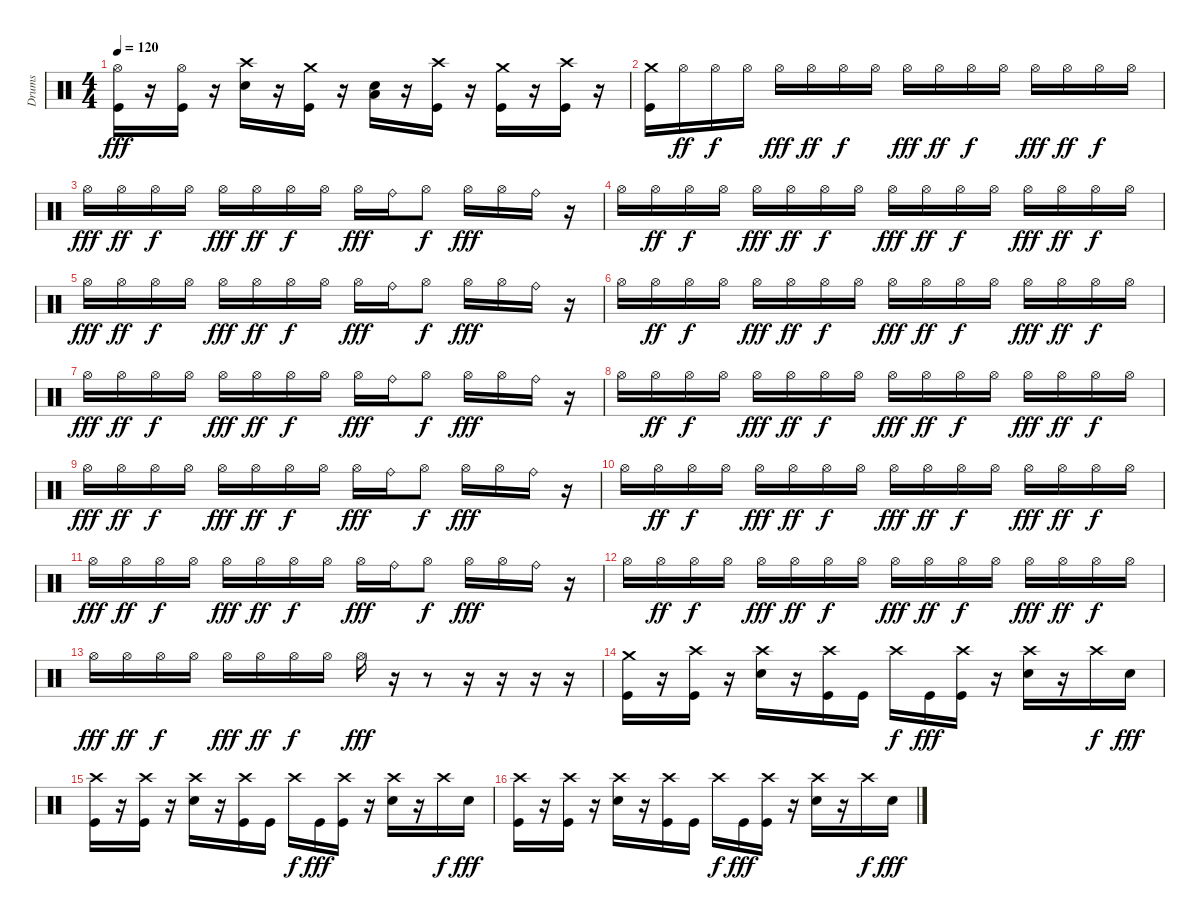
\track ("Drums" "Drums") {instrument percussion}
\staff {score}
\articulation defaults
\ts (4 4)
\tempo 120
\clef neutral
\ks c
("Hi-Hat (open)" "Kick (hit)").16{dy fff} r.16 ("Hi-Hat (open)" "Kick (hit)").16 r.16 ("Crash high (hit)" "Electric Snare (hit)").16 r.16 ("Crash medium (hit)" "Kick (hit)").16 r.16 ("Electric Snare (hit)" "Low Floor Tom (hit)").16 r.16 ("Kick (hit)" "Crash high (hit)").16 r.16 ("Crash medium (hit)" "Kick (hit)").16 r.16 ("Kick (hit)" "Crash high (hit)").16 r.16 |
("Crash medium (hit)" "Kick (hit)").16 "Hi-Hat (open)".16{dy ff} "Hi-Hat (open)".16{dy f} "Hi-Hat (open)".16 "Hi-Hat (open)".16{dy fff} "Hi-Hat (open)".16{dy ff} "Hi-Hat (open)".16{dy f} "Hi-Hat (open)".16 "Hi-Hat (open)".16{dy fff} "Hi-Hat (open)".16{dy ff} "Hi-Hat (open)".16{dy f} "Hi-Hat (open)".16 "Hi-Hat (open)".16{dy fff} "Hi-Hat (open)".16{dy ff} "Hi-Hat (open)".16{dy f} "Hi-Hat (open)".16 |
"Hi-Hat (open)".16{dy fff} "Hi-Hat (open)".16{dy ff} "Hi-Hat (open)".16{dy f} "Hi-Hat (open)".16 "Hi-Hat (open)".16{dy fff} "Hi-Hat (open)".16{dy ff} "Hi-Hat (open)".16{dy f} "Hi-Hat (open)".16 "Hi-Hat (open)".16{dy fff} "Ride (bell)".16 "Hi-Hat (open)".8{dy f} "Hi-Hat (open)".16{dy fff} "Hi-Hat (open)".16 "Ride (bell)".16 r.16 |
"Hi-Hat (open)".16 "Hi-Hat (open)".16{dy ff} "Hi-Hat (open)".16{dy f} "Hi-Hat (open)".16 "Hi-Hat (open)".16{dy fff} "Hi-Hat (open)".16{dy ff} "Hi-Hat (open)".16{dy f} "Hi-Hat (open)".16 "Hi-Hat (open)".16{dy fff} "Hi-Hat (open)".16{dy ff} "Hi-Hat (open)".16{dy f} "Hi-Hat (open)".16 "Hi-Hat (open)".16{dy fff} "Hi-Hat (open)".16{dy ff} "Hi-Hat (open)".16{dy f} "Hi-Hat (open)".16 |
"Hi-Hat (open)".16{dy fff} "Hi-Hat (open)".16{dy ff} "Hi-Hat (open)".16{dy f} "Hi-Hat (open)".16 "Hi-Hat (open)".16{dy fff} "Hi-Hat (open)".16{dy ff} "Hi-Hat (open)".16{dy f} "Hi-Hat (open)".16 "Hi-Hat (open)".16{dy fff} "Ride (bell)".16 "Hi-Hat (open)".8{dy f} "Hi-Hat (open)".16{dy fff} "Hi-Hat (open)".16 "Ride (bell)".16 r.16 |
"Hi-Hat (open)".16 "Hi-Hat (open)".16{dy ff} "Hi-Hat (open)".16{dy f} "Hi-Hat (open)".16 "Hi-Hat (open)".16{dy fff} "Hi-Hat (open)".16{dy ff} "Hi-Hat (open)".16{dy f} "Hi-Hat (open)".16 "Hi-Hat (open)".16{dy fff} "Hi-Hat (open)".16{dy ff} "Hi-Hat (open)".16{dy f} "Hi-Hat (open)".16 "Hi-Hat (open)".16{dy fff} "Hi-Hat (open)".16{dy ff} "Hi-Hat (open)".16{dy f} "Hi-Hat (open)".16 |
"Hi-Hat (open)".16{dy fff} "Hi-Hat (open)".16{dy ff} "Hi-Hat (open)".16{dy f} "Hi-Hat (open)".16 "Hi-Hat (open)".16{dy fff} "Hi-Hat (open)".16{dy ff} "Hi-Hat (open)".16{dy f} "Hi-Hat (open)".16 "Hi-Hat (open)".16{dy fff} "Ride (bell)".16 "Hi-Hat (open)".8{dy f} "Hi-Hat (open)".16{dy fff} "Hi-Hat (open)".16 "Ride (bell)".16 r.16 |
"Hi-Hat (open)".16 "Hi-Hat (open)".16{dy ff} "Hi-Hat (open)".16{dy f} "Hi-Hat (open)".16 "Hi-Hat (open)".16{dy fff} "Hi-Hat (open)".16{dy ff} "Hi-Hat (open)".16{dy f} "Hi-Hat (open)".16 "Hi-Hat (open)".16{dy fff} "Hi-Hat (open)".16{dy ff} "Hi-Hat (open)".16{dy f} "Hi-Hat (open)".16 "Hi-Hat (open)".16{dy fff} "Hi-Hat (open)".16{dy ff} "Hi-Hat (open)".16{dy f} "Hi-Hat (open)".16 |
"Hi-Hat (open)".16{dy fff} "Hi-Hat (open)".16{dy ff} "Hi-Hat (open)".16{dy f} "Hi-Hat (open)".16 "Hi-Hat (open)".16{dy fff} "Hi-Hat (open)".16{dy ff} "Hi-Hat (open)".16{dy f} "Hi-Hat (open)".16 "Hi-Hat (open)".16{dy fff} "Ride (bell)".16 "Hi-Hat (open)".8{dy f} "Hi-Hat (open)".16{dy fff} "Hi-Hat (open)".16 "Ride (bell)".16 r.16 |
"Hi-Hat (open)".16 "Hi-Hat (open)".16{dy ff} "Hi-Hat (open)".16{dy f} "Hi-Hat (open)".16 "Hi-Hat (open)".16{dy fff} "Hi-Hat (open)".16{dy ff} "Hi-Hat (open)".16{dy f} "Hi-Hat (open)".16 "Hi-Hat (open)".16{dy fff} "Hi-Hat (open)".16{dy ff} "Hi-Hat (open)".16{dy f} "Hi-Hat (open)".16 "Hi-Hat (open)".16{dy fff} "Hi-Hat (open)".16{dy ff} "Hi-Hat (open)".16{dy f} "Hi-Hat (open)".16 |
"Hi-Hat (open)".16{dy fff} "Hi-Hat (open)".16{dy ff} "Hi-Hat (open)".16{dy f} "Hi-Hat (open)".16 "Hi-Hat (open)".16{dy fff} "Hi-Hat (open)".16{dy ff} "Hi-Hat (open)".16{dy f} "Hi-Hat (open)".16 "Hi-Hat (open)".16{dy fff} "Ride (bell)".16 "Hi-Hat (open)".8{dy f} "Hi-Hat (open)".16{dy fff} "Hi-Hat (open)".16 "Ride (bell)".16 r.16 |
"Hi-Hat (open)".16 "Hi-Hat (open)".16{dy ff} "Hi-Hat (open)".16{dy f} "Hi-Hat (open)".16 "Hi-Hat (open)".16{dy fff} "Hi-Hat (open)".16{dy ff} "Hi-Hat (open)".16{dy f} "Hi-Hat (open)".16 "Hi-Hat (open)".16{dy fff} "Hi-Hat (open)".16{dy ff} "Hi-Hat (open)".16{dy f} "Hi-Hat (open)".16 "Hi-Hat (open)".16{dy fff} "Hi-Hat (open)".16{dy ff} "Hi-Hat (open)".16{dy f} "Hi-Hat (open)".16 |
"Hi-Hat (open)".16{dy fff} "Hi-Hat (open)".16{dy ff} "Hi-Hat (open)".16{dy f} "Hi-Hat (open)".16 "Hi-Hat (open)".16{dy fff} "Hi-Hat (open)".16{dy ff} "Hi-Hat (open)".16{dy f} "Hi-Hat (open)".16 "Hi-Hat (open)".16{dy fff} r.16 r.8 r.16 r.16 r.16 r.16 |
("Crash medium (hit)" "Kick (hit)").16 r.16 ("Crash high (hit)" "Kick (hit)").16 r.16 ("Crash high (hit)" "Electric Snare (hit)").16 r.16 ("Crash high (hit)" "Kick (hit)").16 "Kick (hit)".16 "Crash high (hit)".16{dy f} "Kick (hit)".16{dy fff} ("Crash high (hit)" "Kick (hit)").16 r.16 ("Crash high (hit)" "Electric Snare (hit)").16 r.16 "Crash high (hit)".16{dy f} "Electric Snare (hit)".16{dy fff} |
("Crash high (hit)" "Kick (hit)").16 r.16 ("Crash high (hit)" "Kick (hit)").16 r.16 ("Crash high (hit)" "Electric Snare (hit)").16 r.16 ("Crash high (hit)" "Kick (hit)").16 "Kick (hit)".16 "Crash high (hit)".16{dy f} "Kick (hit)".16{dy fff} ("Crash high (hit)" "Kick (hit)").16 r.16 ("Crash high (hit)" "Electric Snare (hit)").16 r.16 "Crash high (hit)".16{dy f} "Electric Snare (hit)".16{dy fff} |
("Crash high (hit)" "Kick (hit)").16 r.16 ("Crash high (hit)" "Kick (hit)").16 r.16 ("Crash high (hit)" "Electric Snare (hit)").16 r.16 ("Crash high (hit)" "Kick (hit)").16 "Kick (hit)".16 "Crash high (hit)".16{dy f} "Kick (hit)".16{dy fff} ("Crash high (hit)" "Kick (hit)").16 r.16 ("Crash high (hit)" "Electric Snare (hit)").16 r.16 "Crash high (hit)".16{dy f} "Electric Snare (hit)".16{dy fff}
